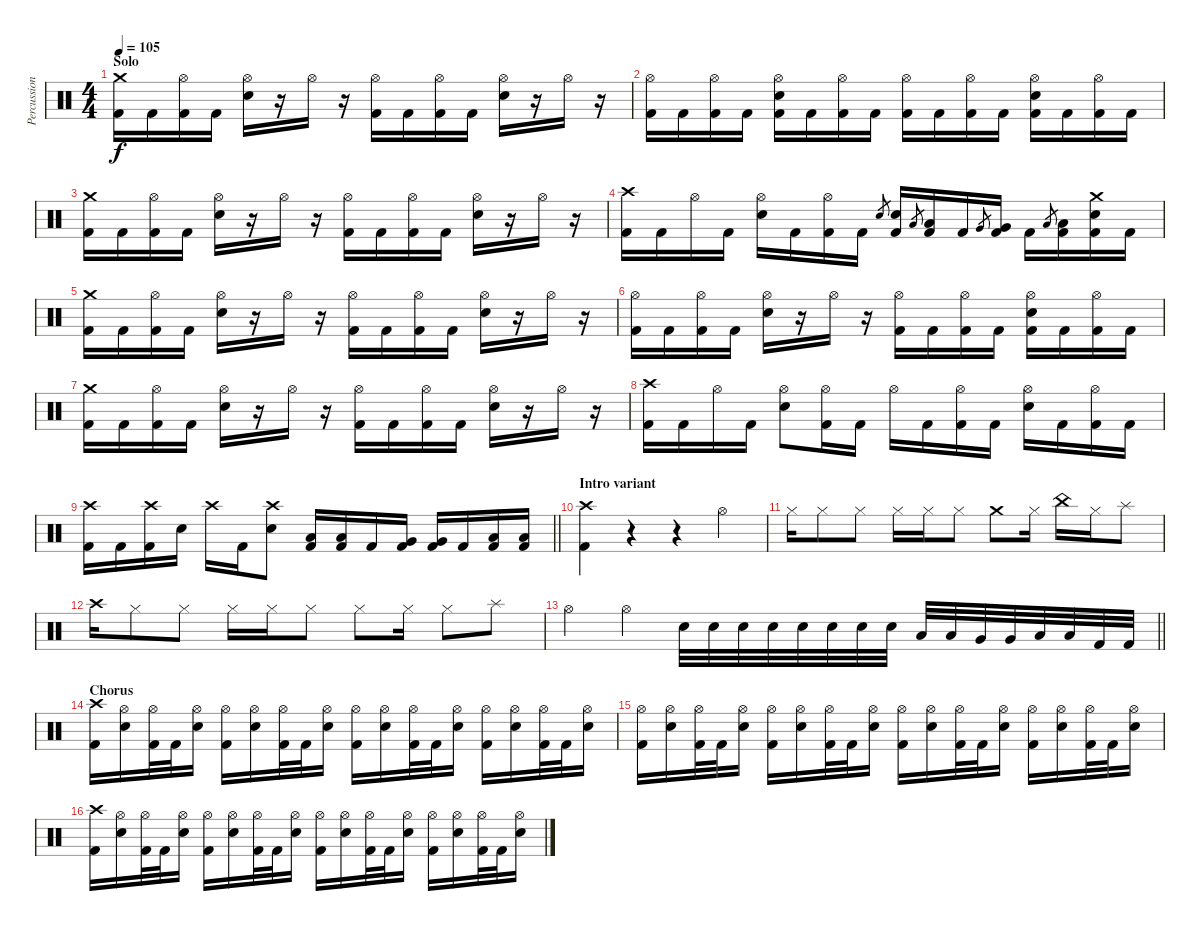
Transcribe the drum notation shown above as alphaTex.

\track ("Percussions" "Percussion") {instrument percussion}
\staff {score}
\articulation defaults
\ts (4 4)
\section ("" "Solo")
\tempo 105
\clef neutral
\ks c
("Crash medium (hit)" "Kick (hit) 2").16{dy f} "Kick (hit) 2".16 ("Hi-Hat (open)" "Kick (hit) 2").16 "Kick (hit) 2".16 ("Hi-Hat (open)" "Electric Snare (hit)").16 r.16 "Hi-Hat (open)".16 r.16 ("Hi-Hat (open)" "Kick (hit) 2").16 "Kick (hit) 2".16 ("Hi-Hat (open)" "Kick (hit) 2").16 "Kick (hit) 2".16 ("Hi-Hat (open)" "Electric Snare (hit)").16 r.16 "Hi-Hat (open)".16 r.16 |
("Hi-Hat (open)" "Kick (hit) 2").16 "Kick (hit) 2".16 ("Hi-Hat (open)" "Kick (hit) 2").16 "Kick (hit) 2".16 ("Hi-Hat (open)" "Electric Snare (hit)" "Kick (hit) 2").16 "Kick (hit) 2".16 ("Hi-Hat (open)" "Kick (hit) 2").16 "Kick (hit) 2".16 ("Hi-Hat (open)" "Kick (hit) 2").16 "Kick (hit) 2".16 ("Hi-Hat (open)" "Kick (hit) 2").16 "Kick (hit) 2".16 ("Hi-Hat (open)" "Electric Snare (hit)" "Kick (hit) 2").16 "Kick (hit) 2".16 ("Hi-Hat (open)" "Kick (hit) 2").16 "Kick (hit) 2".16 |
("Crash medium (hit)" "Kick (hit) 2").16 "Kick (hit) 2".16 ("Hi-Hat (open)" "Kick (hit) 2").16 "Kick (hit) 2".16 ("Hi-Hat (open)" "Electric Snare (hit)").16 r.16 "Hi-Hat (open)".16 r.16 ("Hi-Hat (open)" "Kick (hit) 2").16 "Kick (hit) 2".16 ("Hi-Hat (open)" "Kick (hit) 2").16 "Kick (hit) 2".16 ("Hi-Hat (open)" "Electric Snare (hit)").16 r.16 "Hi-Hat (open)".16 r.16 |
("Crash high (hit)" "Kick (hit) 2").16 "Kick (hit) 2".16 "Hi-Hat (open)".16 "Kick (hit) 2".16 ("Hi-Hat (open)" "Electric Snare (hit)").16 "Kick (hit) 2".16 ("Hi-Hat (open)" "Kick (hit) 2").16 "Kick (hit) 2".16 "Electric Snare (hit)".8{gr} ("Electric Snare (hit)" "Kick (hit) 2").16 "Low Tom (hit)".8{gr} ("Low Tom (hit)" "Kick (hit) 2").16 "Kick (hit) 2".16 "Very Low Tom (hit)".8{gr} ("Very Low Tom (hit)" "Kick (hit) 2").16 "Kick (hit) 2".16 "Low Floor Tom (hit)".8{gr} ("Low Floor Tom (hit)" "Kick (hit) 2").16 ("Crash medium (hit)" "Electric Snare (hit)" "Kick (hit) 2").16 "Kick (hit) 2".16 |
("Crash medium (hit)" "Kick (hit) 2").16 "Kick (hit) 2".16 ("Hi-Hat (open)" "Kick (hit) 2").16 "Kick (hit) 2".16 ("Hi-Hat (open)" "Electric Snare (hit)").16 r.16 "Hi-Hat (open)".16 r.16 ("Hi-Hat (open)" "Kick (hit) 2").16 "Kick (hit) 2".16 ("Hi-Hat (open)" "Kick (hit) 2").16 "Kick (hit) 2".16 ("Hi-Hat (open)" "Electric Snare (hit)").16 r.16 "Hi-Hat (open)".16 r.16 |
("Hi-Hat (open)" "Kick (hit) 2").16 "Kick (hit) 2".16 ("Hi-Hat (open)" "Kick (hit) 2").16 "Kick (hit) 2".16 ("Hi-Hat (open)" "Electric Snare (hit)").16 r.16 "Hi-Hat (open)".16 r.16 ("Hi-Hat (open)" "Kick (hit) 2").16 "Kick (hit) 2".16 ("Hi-Hat (open)" "Kick (hit) 2").16 "Kick (hit) 2".16 ("Hi-Hat (open)" "Electric Snare (hit)" "Kick (hit) 2").16 "Kick (hit) 2".16 ("Hi-Hat (open)" "Kick (hit) 2").16 "Kick (hit) 2".16 |
("Crash medium (hit)" "Kick (hit) 2").16 "Kick (hit) 2".16 ("Hi-Hat (open)" "Kick (hit) 2").16 "Kick (hit) 2".16 ("Hi-Hat (open)" "Electric Snare (hit)").16 r.16 "Hi-Hat (open)".16 r.16 ("Hi-Hat (open)" "Kick (hit) 2").16 "Kick (hit) 2".16 ("Hi-Hat (open)" "Kick (hit) 2").16 "Kick (hit) 2".16 ("Hi-Hat (open)" "Electric Snare (hit)").16 r.16 "Hi-Hat (open)".16 r.16 |
("Crash high (hit)" "Kick (hit) 2").16 "Kick (hit) 2".16 "Hi-Hat (open)".16 "Kick (hit) 2".16 ("Hi-Hat (open)" "Electric Snare (hit)").8 ("Hi-Hat (open)" "Kick (hit) 2").16 "Kick (hit) 2".16 "Hi-Hat (open)".16 "Kick (hit) 2".16 ("Hi-Hat (open)" "Kick (hit) 2").16 "Kick (hit) 2".16 ("Hi-Hat (open)" "Electric Snare (hit)").16 "Kick (hit) 2".16 ("Hi-Hat (open)" "Kick (hit) 2").16 "Kick (hit) 2".16 |
\barLineRight lightlight
("Crash high (hit)" "Kick (hit) 2").16 "Kick (hit) 2".16 ("Crash high (hit)" "Kick (hit) 2").16 "Electric Snare (hit)".16 "Crash high (hit)".16 "Kick (hit) 2".16 ("Crash high (hit)" "Electric Snare (hit)").8 ("Low Tom (hit)" "Kick (hit) 2").16 ("Low Tom (hit)" "Kick (hit) 2").16 "Kick (hit) 2".16 ("Very Low Tom (hit)" "Kick (hit) 2").16 ("Very Low Tom (hit)" "Kick (hit) 2").16 "Kick (hit) 2".16 ("Low Floor Tom (hit)" "Kick (hit) 2").16 ("Low Floor Tom (hit)" "Kick (hit) 2").16 |
\section ("" "Intro variant")
("Crash high (hit)" "Kick (hit) 2").4 r.4 r.4 "Hi-Hat (open)".4 |
"Hi-Hat (closed)".16 "Hi-Hat (closed)".8 "Hi-Hat (closed)".8 "Hi-Hat (closed)".16 "Hi-Hat (closed)".16 "Hi-Hat (closed)".8 "Crash medium (hit)".8 "Hi-Hat (closed)".16 "China (hit)".16 "Hi-Hat (closed)".16 "Splash (hit)".8 |
"Crash high (hit)".16 "Hi-Hat (closed)".8 "Hi-Hat (closed)".8 "Hi-Hat (closed)".16 "Hi-Hat (closed)".16 "Hi-Hat (closed)".8 "Hi-Hat (closed)".8 "Hi-Hat (closed)".16 "Hi-Hat (closed)".8 "Splash (hit)".8 |
\barLineRight lightlight "Hi-Hat (open)".4 "Hi-Hat (open)".4 "Electric Snare (hit)".32 "Electric Snare (hit)".32 "Electric Snare (hit)".32 "Electric Snare (hit)".32 "Electric Snare (hit)".32 "Electric Snare (hit)".32 "Electric Snare (hit)".32 "Electric Snare (hit)".32 "Low Tom (hit)".32 "Low Tom (hit)".32 "Very Low Tom (hit)".32 "Very Low Tom (hit)".32 "Low Floor Tom (hit)".32 "Low Floor Tom (hit)".32 "Kick (hit) 2".32 "Kick (hit) 2".32
|
\section ("" "Chorus")
("Crash high (hit)" "Kick (hit) 2").16 ("Hi-Hat (open)" "Electric Snare (hit)").16 ("Hi-Hat (open)" "Kick (hit) 2").32 "Kick (hit) 2".32 ("Hi-Hat (open)" "Electric Snare (hit)").16 ("Hi-Hat (open)" "Kick (hit) 2").16 ("Hi-Hat (open)" "Electric Snare (hit)").16 ("Hi-Hat (open)" "Kick (hit) 2").32 "Kick (hit) 2".32 ("Hi-Hat (open)" "Electric Snare (hit)").16 ("Hi-Hat (open)" "Kick (hit) 2").16 ("Hi-Hat (open)" "Electric Snare (hit)").16 ("Hi-Hat (open)" "Kick (hit) 2").32 "Kick (hit) 2".32 ("Hi-Hat (open)" "Electric Snare (hit)").16 ("Hi-Hat (open)" "Kick (hit) 2").16 ("Hi-Hat (open)" "Electric Snare (hit)").16 ("Hi-Hat (open)" "Kick (hit) 2").32 "Kick (hit) 2".32 ("Hi-Hat (open)" "Electric Snare (hit)").16 |
("Hi-Hat (open)" "Kick (hit) 2").16 ("Hi-Hat (open)" "Electric Snare (hit)").16 ("Hi-Hat (open)" "Kick (hit) 2").32 "Kick (hit) 2".32 ("Hi-Hat (open)" "Electric Snare (hit)").16 ("Hi-Hat (open)" "Kick (hit) 2").16 ("Hi-Hat (open)" "Electric Snare (hit)").16 ("Hi-Hat (open)" "Kick (hit) 2").32 "Kick (hit) 2".32 ("Hi-Hat (open)" "Electric Snare (hit)").16 ("Hi-Hat (open)" "Kick (hit) 2").16 ("Hi-Hat (open)" "Electric Snare (hit)").16 ("Hi-Hat (open)" "Kick (hit) 2").32 "Kick (hit) 2".32 ("Hi-Hat (open)" "Electric Snare (hit)").16 ("Hi-Hat (open)" "Kick (hit) 2").16 ("Hi-Hat (open)" "Electric Snare (hit)").16 ("Hi-Hat (open)" "Kick (hit) 2").32 "Kick (hit) 2".32 ("Hi-Hat (open)" "Electric Snare (hit)").16 |
("Crash high (hit)" "Kick (hit) 2").16 ("Hi-Hat (open)" "Electric Snare (hit)").16 ("Hi-Hat (open)" "Kick (hit) 2").32 "Kick (hit) 2".32 ("Hi-Hat (open)" "Electric Snare (hit)").16 ("Hi-Hat (open)" "Kick (hit) 2").16 ("Hi-Hat (open)" "Electric Snare (hit)").16 ("Hi-Hat (open)" "Kick (hit) 2").32 "Kick (hit) 2".32 ("Hi-Hat (open)" "Electric Snare (hit)").16 ("Hi-Hat (open)" "Kick (hit) 2").16 ("Hi-Hat (open)" "Electric Snare (hit)").16 ("Hi-Hat (open)" "Kick (hit) 2").32 "Kick (hit) 2".32 ("Hi-Hat (open)" "Electric Snare (hit)").16 ("Hi-Hat (open)" "Kick (hit) 2").16 ("Hi-Hat (open)" "Electric Snare (hit)").16 ("Hi-Hat (open)" "Kick (hit) 2").32 "Kick (hit) 2".32 ("Hi-Hat (open)" "Electric Snare (hit)").16
